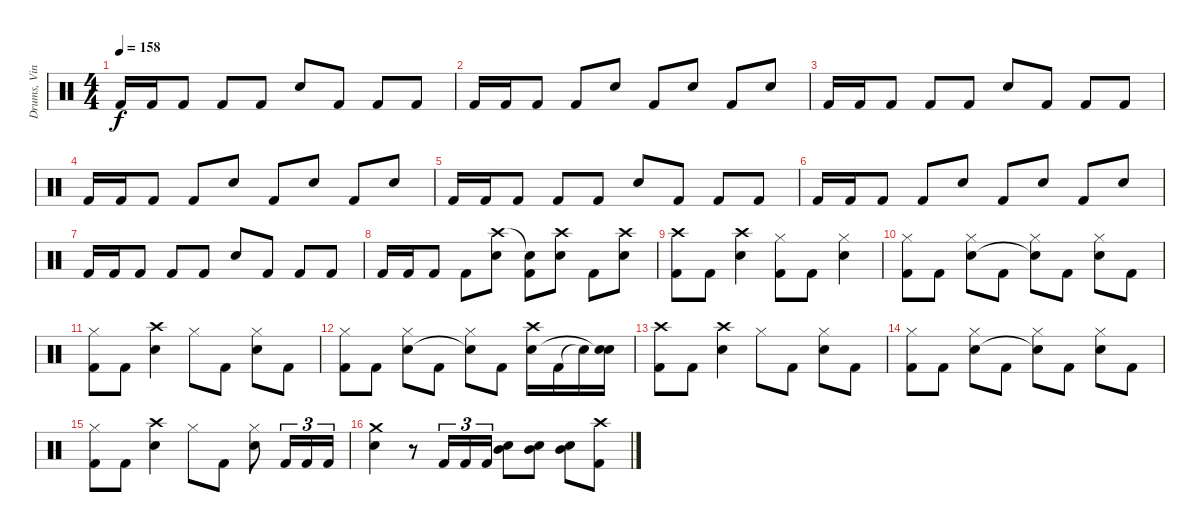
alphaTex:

\track ("Drums, Vinnie" "Drums, Vin") {instrument percussion}
\staff {score}
\articulation defaults
\ts (4 4)
\tempo 158
\clef neutral
\ks c "Kick (hit) 2".16{dy f} "Kick (hit) 2".16 "Kick (hit) 2".8 "Kick (hit) 2".8 "Kick (hit) 2".8 "Electric Snare (hit)".8 "Kick (hit) 2".8 "Kick (hit) 2".8 "Kick (hit) 2".8
|
"Kick (hit) 2".16 "Kick (hit) 2".16 "Kick (hit) 2".8 "Kick (hit) 2".8 "Electric Snare (hit)".8 "Kick (hit) 2".8 "Electric Snare (hit)".8 "Kick (hit) 2".8 "Electric Snare (hit)".8 |
"Kick (hit) 2".16 "Kick (hit) 2".16 "Kick (hit) 2".8 "Kick (hit) 2".8 "Kick (hit) 2".8 "Electric Snare (hit)".8 "Kick (hit) 2".8 "Kick (hit) 2".8 "Kick (hit) 2".8 |
"Kick (hit) 2".16 "Kick (hit) 2".16 "Kick (hit) 2".8 "Kick (hit) 2".8 "Electric Snare (hit)".8 "Kick (hit) 2".8 "Electric Snare (hit)".8 "Kick (hit) 2".8 "Electric Snare (hit)".8 |
"Kick (hit) 2".16 "Kick (hit) 2".16 "Kick (hit) 2".8 "Kick (hit) 2".8 "Kick (hit) 2".8 "Electric Snare (hit)".8 "Kick (hit) 2".8 "Kick (hit) 2".8 "Kick (hit) 2".8 |
"Kick (hit) 2".16 "Kick (hit) 2".16 "Kick (hit) 2".8 "Kick (hit) 2".8 "Electric Snare (hit)".8 "Kick (hit) 2".8 "Electric Snare (hit)".8 "Kick (hit) 2".8 "Electric Snare (hit)".8 |
"Kick (hit) 2".16 "Kick (hit) 2".16 "Kick (hit) 2".8 "Kick (hit) 2".8 "Kick (hit) 2".8 "Electric Snare (hit)".8 "Kick (hit) 2".8 "Kick (hit) 2".8 "Kick (hit) 2".8 |
"Kick (hit) 2".16 "Kick (hit) 2".16 "Kick (hit) 2".8 "Kick (hit) 2".8 ("Crash high (hit)" "Electric Snare (hit)").8 ("Snare (hit)"{t} "Kick (hit) 2").8 ("Crash high (hit)" "Electric Snare (hit)").8 "Kick (hit) 2".8 ("Crash high (hit)" "Electric Snare (hit)").8 |
("Crash high (hit)" "Kick (hit) 2").8 "Kick (hit) 2".8 ("Crash high (hit)" "Electric Snare (hit)").4 ("Hi-Hat (closed)" "Kick (hit) 2").8 "Kick (hit) 2".8 ("Hi-Hat (closed)" "Electric Snare (hit)").4 |
("Hi-Hat (closed)" "Kick (hit) 2").8 "Kick (hit) 2".8 ("Hi-Hat (closed)" "Electric Snare (hit)").8 "Kick (hit) 2".8 ("Hi-Hat (closed)" "Snare (hit)"{t}).8 "Kick (hit) 2".8 ("Hi-Hat (closed)" "Electric Snare (hit)").8 "Kick (hit) 2".8 |
("Hi-Hat (closed)" "Kick (hit) 2").8 "Kick (hit) 2".8 ("Crash high (hit)" "Electric Snare (hit)").4 "Hi-Hat (closed)".8 "Kick (hit) 2".8 ("Hi-Hat (closed)" "Electric Snare (hit)").8 "Kick (hit) 2".8 |
("Hi-Hat (closed)" "Kick (hit) 2").8 "Kick (hit) 2".8 ("Hi-Hat (closed)" "Electric Snare (hit)").8 "Kick (hit) 2".8 ("Hi-Hat (closed)" "Snare (hit)"{t}).8 "Kick (hit) 2".8 ("Crash high (hit)" "Electric Snare (hit)").16 "Kick (hit) 2".16 "Snare (hit)"{t}.16 ("Electric Snare (hit)" "Snare (hit)"{t}).16 |
("Crash high (hit)" "Kick (hit) 2").8 "Kick (hit) 2".8 ("Crash high (hit)" "Electric Snare (hit)").4 "Hi-Hat (closed)".8 "Kick (hit) 2".8 ("Hi-Hat (closed)" "Electric Snare (hit)").8 "Kick (hit) 2".8 |
("Hi-Hat (closed)" "Kick (hit) 2").8 "Kick (hit) 2".8 ("Hi-Hat (closed)" "Electric Snare (hit)").8 "Kick (hit) 2".8 ("Hi-Hat (closed)" "Snare (hit)"{t}).8 "Kick (hit) 2".8 ("Hi-Hat (closed)" "Electric Snare (hit)").8 "Kick (hit) 2".8 |
("Hi-Hat (closed)" "Kick (hit) 2").8 "Kick (hit) 2".8 ("Crash high (hit)" "Electric Snare (hit)").4 "Hi-Hat (closed)".8 "Kick (hit) 2".8 ("Hi-Hat (closed)" "Electric Snare (hit)").8 "Kick (hit) 2".16{tu (3 2)} "Kick (hit) 2".16{tu (3 2)} "Kick (hit) 2".16{tu (3 2)} |
("Crash medium (hit)" "Electric Snare (hit)").4 r.8 "Kick (hit) 2".16{tu (3 2)} "Kick (hit) 2".16{tu (3 2)} "Kick (hit) 2".16{tu (3 2)} ("Electric Snare (hit)" "Mid Tom (hit)").8 ("Electric Snare (hit)" "Mid Tom (hit)").8 ("Electric Snare (hit)" "Mid Tom (hit)").8 ("Crash high (hit)" "Kick (hit) 2").8
